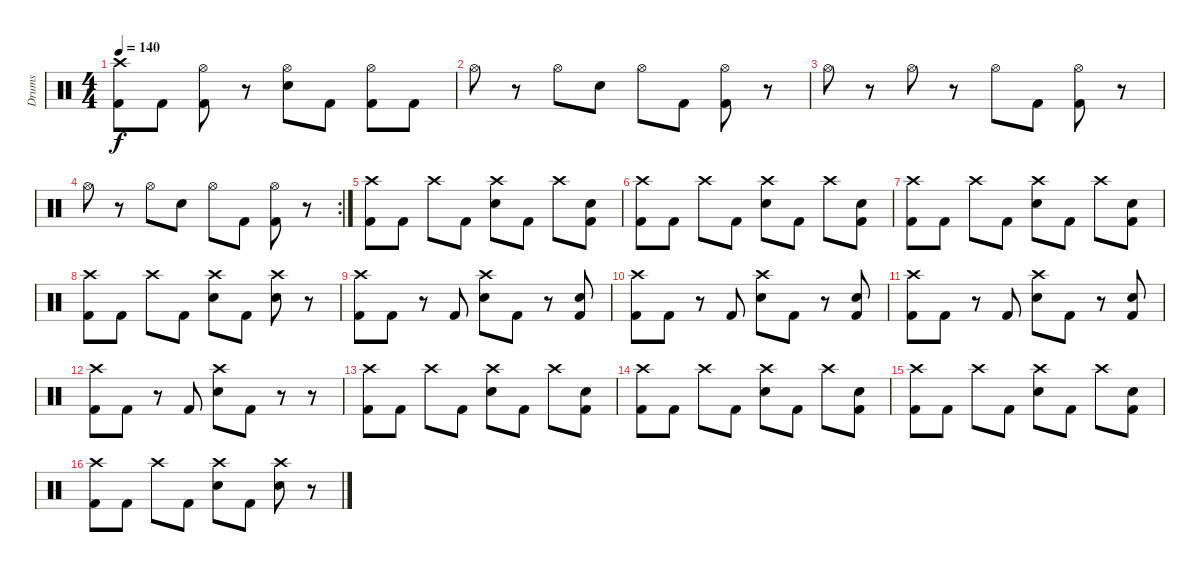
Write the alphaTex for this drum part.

\track ("Drums" "Drums") {instrument percussion}
\staff {score}
\articulation defaults
\ts (4 4)
\tempo 140
\clef neutral
\ks c
("Crash high (hit)" "Kick (hit) 2").8{dy f} "Kick (hit) 2".8 ("Hi-Hat (open)" "Kick (hit) 2").8 r.8 ("Hi-Hat (open)" "Electric Snare (hit)").8 "Kick (hit) 2".8 ("Hi-Hat (open)" "Kick (hit) 2").8 "Kick (hit) 2".8 |
"Hi-Hat (open)".8 r.8 "Hi-Hat (open)".8 "Electric Snare (hit)".8 "Hi-Hat (open)".8 "Kick (hit) 2".8 ("Hi-Hat (open)" "Kick (hit) 2").8 r.8 |
"Hi-Hat (open)".8 r.8 "Hi-Hat (open)".8 r.8 "Hi-Hat (open)".8 "Kick (hit) 2".8 ("Hi-Hat (open)" "Kick (hit) 2").8 r.8 |
\rc 2 "Hi-Hat (open)".8
r.8 "Hi-Hat (open)".8 "Electric Snare (hit)".8 "Hi-Hat (open)".8 "Kick (hit) 2".8 ("Hi-Hat (open)" "Kick (hit) 2").8 r.8 |
("Crash high (hit)" "Kick (hit) 2").8 "Kick (hit) 2".8 "Crash high (hit)".8 "Kick (hit) 2".8 ("Crash high (hit)" "Electric Snare (hit)").8 "Kick (hit) 2".8 "Crash high (hit)".8 ("Electric Snare (hit)" "Kick (hit) 2").8 |
("Crash high (hit)" "Kick (hit) 2").8 "Kick (hit) 2".8 "Crash high (hit)".8 "Kick (hit) 2".8 ("Crash high (hit)" "Electric Snare (hit)").8 "Kick (hit) 2".8 "Crash high (hit)".8 ("Electric Snare (hit)" "Kick (hit) 2").8 |
("Crash high (hit)" "Kick (hit) 2").8 "Kick (hit) 2".8 "Crash high (hit)".8 "Kick (hit) 2".8 ("Crash high (hit)" "Electric Snare (hit)").8 "Kick (hit) 2".8 "Crash high (hit)".8 ("Electric Snare (hit)" "Kick (hit) 2").8 |
("Crash high (hit)" "Kick (hit) 2").8 "Kick (hit) 2".8 "Crash high (hit)".8 "Kick (hit) 2".8 ("Crash high (hit)" "Electric Snare (hit)").8 "Kick (hit) 2".8 ("Crash high (hit)" "Electric Snare (hit)").8 r.8 |
("Crash high (hit)" "Kick (hit) 2").8 "Kick (hit) 2".8 r.8 "Kick (hit) 2".8 ("Crash high (hit)" "Electric Snare (hit)").8 "Kick (hit) 2".8 r.8 ("Electric Snare (hit)" "Kick (hit) 2").8 |
("Crash high (hit)" "Kick (hit) 2").8 "Kick (hit) 2".8 r.8 "Kick (hit) 2".8 ("Crash high (hit)" "Electric Snare (hit)").8 "Kick (hit) 2".8 r.8 ("Electric Snare (hit)" "Kick (hit) 2").8 |
("Crash high (hit)" "Kick (hit) 2").8 "Kick (hit) 2".8 r.8 "Kick (hit) 2".8 ("Crash high (hit)" "Electric Snare (hit)").8 "Kick (hit) 2".8 r.8 ("Electric Snare (hit)" "Kick (hit) 2").8 |
("Crash high (hit)" "Kick (hit) 2").8 "Kick (hit) 2".8 r.8 "Kick (hit) 2".8 ("Crash high (hit)" "Electric Snare (hit)").8 "Kick (hit) 2".8 r.8 r.8 |
("Crash high (hit)" "Kick (hit) 2").8 "Kick (hit) 2".8 "Crash high (hit)".8 "Kick (hit) 2".8 ("Crash high (hit)" "Electric Snare (hit)").8 "Kick (hit) 2".8 "Crash high (hit)".8 ("Electric Snare (hit)" "Kick (hit) 2").8 |
("Crash high (hit)" "Kick (hit) 2").8 "Kick (hit) 2".8 "Crash high (hit)".8 "Kick (hit) 2".8 ("Crash high (hit)" "Electric Snare (hit)").8 "Kick (hit) 2".8 "Crash high (hit)".8 ("Electric Snare (hit)" "Kick (hit) 2").8 |
("Crash high (hit)" "Kick (hit) 2").8 "Kick (hit) 2".8 "Crash high (hit)".8 "Kick (hit) 2".8 ("Crash high (hit)" "Electric Snare (hit)").8 "Kick (hit) 2".8 "Crash high (hit)".8 ("Electric Snare (hit)" "Kick (hit) 2").8 |
("Crash high (hit)" "Kick (hit) 2").8 "Kick (hit) 2".8 "Crash high (hit)".8 "Kick (hit) 2".8 ("Crash high (hit)" "Electric Snare (hit)").8 "Kick (hit) 2".8 ("Crash high (hit)" "Electric Snare (hit)").8 r.8
